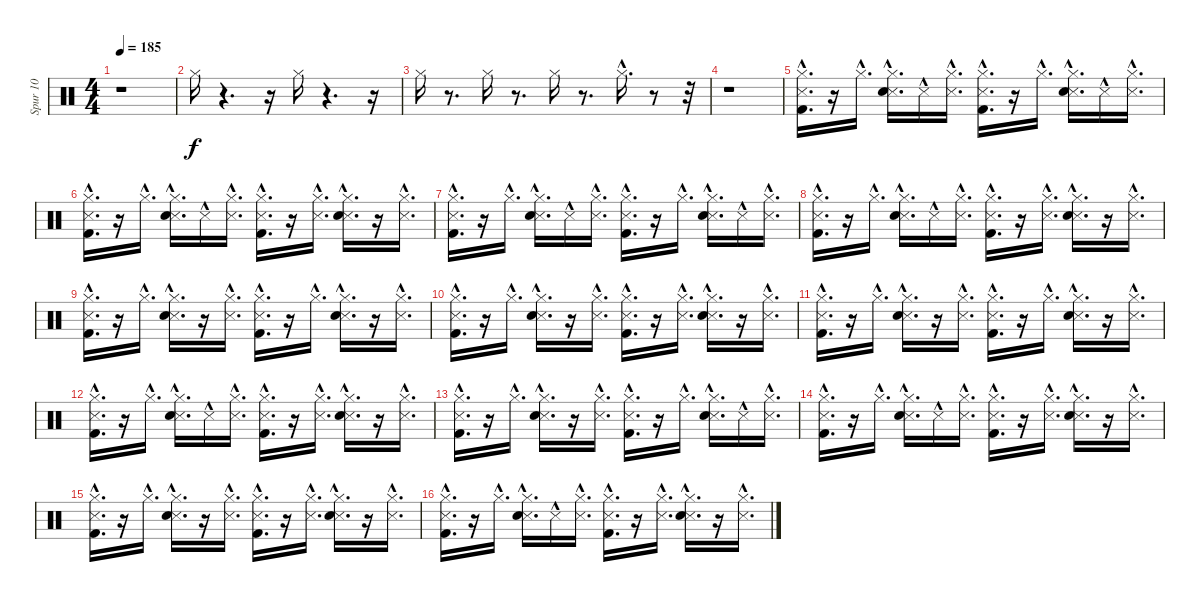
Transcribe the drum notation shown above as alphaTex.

\track ("Spur 10" "Spur 10") {instrument percussion}
\staff {score}
\articulation defaults
\ts (4 4)
\tempo 185
\clef neutral
\ks c
r.1{dy f} |
"Hi-Hat (closed)".16 r.4{d} r.16 "Hi-Hat (closed)".16 r.4{d} r.16 |
"Hi-Hat (closed)".16 r.8{d} "Hi-Hat (closed)".16 r.8{d} "Hi-Hat (closed)".16 r.8{d} "Hi-Hat (closed)"{hac}.16{d} r.8 r.32 |
r.1 |
("Metronome (hit)"{hac} "Kick (hit) 2"{hac} "Hi-Hat (closed)"{hac}).16{d} r.16 "Hi-Hat (closed)"{hac}.16{d} ("Metronome (hit)"{hac} "Snare (hit) 2"{hac} "Hi-Hat (closed)"{hac}).16{d} "Metronome (hit)"{hac}.16 ("Metronome (hit)"{hac} "Hi-Hat (closed)"{hac}).16{d} ("Metronome (hit)"{hac} "Kick (hit) 2"{hac} "Hi-Hat (closed)"{hac}).16{d} r.16 "Hi-Hat (closed)"{hac}.16{d} ("Metronome (hit)"{hac} "Snare (hit) 2"{hac} "Hi-Hat (closed)"{hac}).16{d} "Metronome (hit)"{hac}.16 ("Metronome (hit)"{hac} "Hi-Hat (closed)"{hac}).16{d} |
("Metronome (hit)"{hac} "Hi-Hat (closed)"{hac} "Kick (hit) 2"{hac}).16{d} r.16 "Hi-Hat (closed)"{hac}.16{d} ("Metronome (hit)"{hac} "Hi-Hat (closed)"{hac} "Snare (hit) 2"{hac}).16{d} "Metronome (hit)"{hac}.16 ("Metronome (hit)"{hac} "Hi-Hat (closed)"{hac}).16{d} ("Metronome (hit)"{hac} "Hi-Hat (closed)"{hac} "Kick (hit) 2"{hac}).16{d} r.16 ("Metronome (hit)"{hac} "Hi-Hat (closed)"{hac}).16{d} ("Metronome (hit)"{hac} "Hi-Hat (closed)"{hac} "Snare (hit) 2"{hac}).16{d} r.16 ("Metronome (hit)"{hac} "Hi-Hat (closed)"{hac}).16{d} |
("Metronome (hit)"{hac} "Hi-Hat (closed)"{hac} "Kick (hit) 2"{hac}).16{d} r.16 "Hi-Hat (closed)"{hac}.16{d} ("Metronome (hit)"{hac} "Hi-Hat (closed)"{hac} "Snare (hit) 2"{hac}).16{d} "Metronome (hit)"{hac}.16 ("Metronome (hit)"{hac} "Hi-Hat (closed)"{hac}).16{d} ("Metronome (hit)"{hac} "Hi-Hat (closed)"{hac} "Kick (hit) 2"{hac}).16{d} r.16 "Hi-Hat (closed)"{hac}.16{d} ("Metronome (hit)"{hac} "Hi-Hat (closed)"{hac} "Snare (hit) 2"{hac}).16{d} "Metronome (hit)"{hac}.16 ("Metronome (hit)"{hac} "Hi-Hat (closed)"{hac}).16{d} |
("Metronome (hit)"{hac} "Hi-Hat (closed)"{hac} "Kick (hit) 2"{hac}).16{d} r.16 "Hi-Hat (closed)"{hac}.16{d} ("Metronome (hit)"{hac} "Hi-Hat (closed)"{hac} "Snare (hit) 2"{hac}).16{d} "Metronome (hit)"{hac}.16 ("Metronome (hit)"{hac} "Hi-Hat (closed)"{hac}).16{d} ("Metronome (hit)"{hac} "Hi-Hat (closed)"{hac} "Kick (hit) 2"{hac}).16{d} r.16 ("Metronome (hit)"{hac} "Hi-Hat (closed)"{hac}).16{d} ("Metronome (hit)"{hac} "Hi-Hat (closed)"{hac} "Snare (hit) 2"{hac}).16{d} r.16 ("Metronome (hit)"{hac} "Hi-Hat (closed)"{hac}).16{d} |
("Metronome (hit)"{hac} "Hi-Hat (closed)"{hac} "Kick (hit) 2"{hac}).16{d} r.16 "Hi-Hat (closed)"{hac}.16{d} ("Metronome (hit)"{hac} "Hi-Hat (closed)"{hac} "Snare (hit) 2"{hac}).16{d} r.16 ("Metronome (hit)"{hac} "Hi-Hat (closed)"{hac}).16{d} ("Metronome (hit)"{hac} "Hi-Hat (closed)"{hac} "Kick (hit) 2"{hac}).16{d} r.16 "Hi-Hat (closed)"{hac}.16{d} ("Metronome (hit)"{hac} "Hi-Hat (closed)"{hac} "Snare (hit) 2"{hac}).16{d} r.16 ("Metronome (hit)"{hac} "Hi-Hat (closed)"{hac}).16{d} |
("Metronome (hit)"{hac} "Kick (hit) 2"{hac} "Hi-Hat (closed)"{hac}).16{d} r.16 "Hi-Hat (closed)"{hac}.16{d} ("Metronome (hit)"{hac} "Snare (hit) 2"{hac} "Hi-Hat (closed)"{hac}).16{d} r.16 ("Metronome (hit)"{hac} "Hi-Hat (closed)"{hac}).16{d} ("Metronome (hit)"{hac} "Kick (hit) 2"{hac} "Hi-Hat (closed)"{hac}).16{d} r.16 ("Metronome (hit)"{hac} "Hi-Hat (closed)"{hac}).16{d} ("Metronome (hit)"{hac} "Snare (hit) 2"{hac} "Hi-Hat (closed)"{hac}).16{d} r.16 ("Metronome (hit)"{hac} "Hi-Hat (closed)"{hac}).16{d} |
("Metronome (hit)"{hac} "Kick (hit) 2"{hac} "Hi-Hat (closed)"{hac}).16{d} r.16 "Hi-Hat (closed)"{hac}.16{d} ("Metronome (hit)"{hac} "Snare (hit) 2"{hac} "Hi-Hat (closed)"{hac}).16{d} r.16 ("Metronome (hit)"{hac} "Hi-Hat (closed)"{hac}).16{d} ("Metronome (hit)"{hac} "Kick (hit) 2"{hac} "Hi-Hat (closed)"{hac}).16{d} r.16 "Hi-Hat (closed)"{hac}.16{d} ("Metronome (hit)"{hac} "Snare (hit) 2"{hac} "Hi-Hat (closed)"{hac}).16{d} r.16 ("Metronome (hit)"{hac} "Hi-Hat (closed)"{hac}).16{d} |
("Metronome (hit)"{hac} "Kick (hit) 2"{hac} "Hi-Hat (closed)"{hac}).16{d} r.16 "Hi-Hat (closed)"{hac}.16{d} ("Metronome (hit)"{hac} "Snare (hit) 2"{hac} "Hi-Hat (closed)"{hac}).16{d} "Metronome (hit)"{hac}.16 ("Metronome (hit)"{hac} "Hi-Hat (closed)"{hac}).16{d} ("Metronome (hit)"{hac} "Kick (hit) 2"{hac} "Hi-Hat (closed)"{hac}).16{d} r.16 ("Metronome (hit)"{hac} "Hi-Hat (closed)"{hac}).16{d} ("Metronome (hit)"{hac} "Snare (hit) 2"{hac} "Hi-Hat (closed)"{hac}).16{d} r.16 ("Metronome (hit)"{hac} "Hi-Hat (closed)"{hac}).16{d} |
("Metronome (hit)"{hac} "Hi-Hat (closed)"{hac} "Kick (hit) 2"{hac}).16{d} r.16 "Hi-Hat (closed)"{hac}.16{d} ("Metronome (hit)"{hac} "Hi-Hat (closed)"{hac} "Snare (hit) 2"{hac}).16{d} r.16 ("Metronome (hit)"{hac} "Hi-Hat (closed)"{hac}).16{d} ("Metronome (hit)"{hac} "Hi-Hat (closed)"{hac} "Kick (hit) 2"{hac}).16{d} r.16 "Hi-Hat (closed)"{hac}.16{d} ("Metronome (hit)"{hac} "Hi-Hat (closed)"{hac} "Snare (hit) 2"{hac}).16{d} "Metronome (hit)"{hac}.16 ("Metronome (hit)"{hac} "Hi-Hat (closed)"{hac}).16{d} |
("Metronome (hit)"{hac} "Kick (hit) 2"{hac} "Hi-Hat (closed)"{hac}).16{d} r.16 "Hi-Hat (closed)"{hac}.16{d} ("Metronome (hit)"{hac} "Snare (hit) 2"{hac} "Hi-Hat (closed)"{hac}).16{d} "Metronome (hit)"{hac}.16 ("Metronome (hit)"{hac} "Hi-Hat (closed)"{hac}).16{d} ("Metronome (hit)"{hac} "Kick (hit) 2"{hac} "Hi-Hat (closed)"{hac}).16{d} r.16 ("Metronome (hit)"{hac} "Hi-Hat (closed)"{hac}).16{d} ("Metronome (hit)"{hac} "Snare (hit) 2"{hac} "Hi-Hat (closed)"{hac}).16{d} r.16 ("Metronome (hit)"{hac} "Hi-Hat (closed)"{hac}).16{d} |
("Metronome (hit)"{hac} "Kick (hit) 2"{hac} "Hi-Hat (closed)"{hac}).16{d} r.16 "Hi-Hat (closed)"{hac}.16{d} ("Metronome (hit)"{hac} "Snare (hit) 2"{hac} "Hi-Hat (closed)"{hac}).16{d} r.16 ("Metronome (hit)"{hac} "Hi-Hat (closed)"{hac}).16{d} ("Metronome (hit)"{hac} "Kick (hit) 2"{hac} "Hi-Hat (closed)"{hac}).16{d} r.16 ("Metronome (hit)"{hac} "Hi-Hat (closed)"{hac}).16{d} ("Metronome (hit)"{hac} "Snare (hit) 2"{hac} "Hi-Hat (closed)"{hac}).16{d} r.16 ("Metronome (hit)"{hac} "Hi-Hat (closed)"{hac}).16{d} |
("Metronome (hit)"{hac} "Kick (hit) 2"{hac} "Hi-Hat (closed)"{hac}).16{d} r.16 "Hi-Hat (closed)"{hac}.16{d} ("Metronome (hit)"{hac} "Snare (hit) 2"{hac} "Hi-Hat (closed)"{hac}).16{d} "Metronome (hit)"{hac}.16 ("Metronome (hit)"{hac} "Hi-Hat (closed)"{hac}).16{d} ("Metronome (hit)"{hac} "Kick (hit) 2"{hac} "Hi-Hat (closed)"{hac}).16{d} r.16 ("Metronome (hit)"{hac} "Hi-Hat (closed)"{hac}).16{d} ("Metronome (hit)"{hac} "Snare (hit) 2"{hac} "Hi-Hat (closed)"{hac}).16{d} r.16 ("Metronome (hit)"{hac} "Hi-Hat (closed)"{hac}).16{d}
